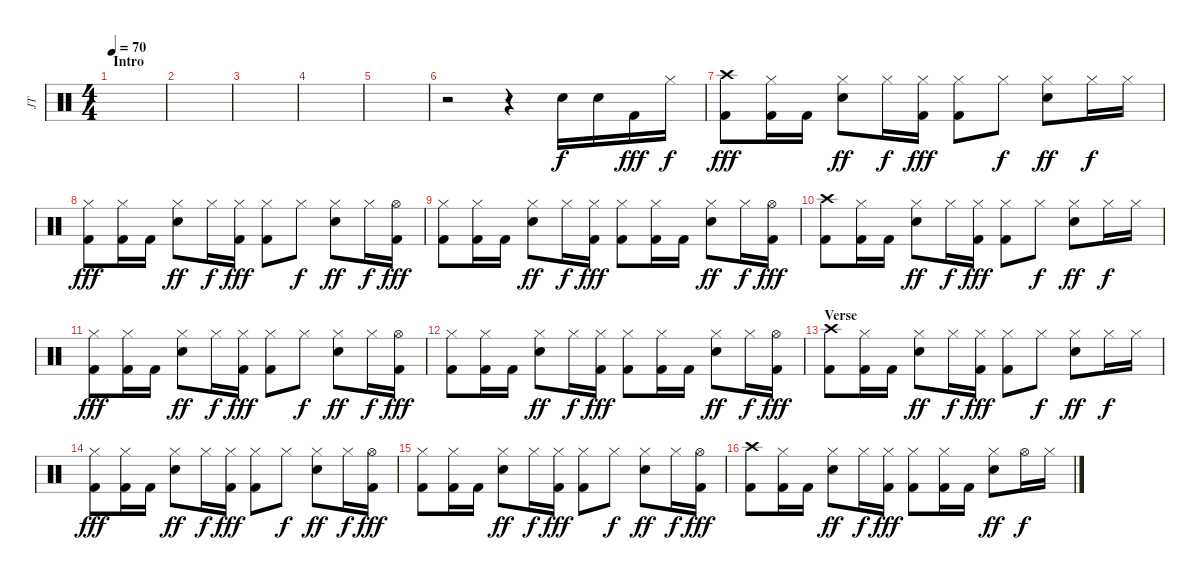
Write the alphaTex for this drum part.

\track ("JT" "JT") {instrument percussion}
\staff {score}
\articulation defaults
\ts (4 4)
\section ("" "Intro")
\tempo 70
\clef neutral
\ks c
|
|
|
|
|
r.2 r.4 "Electric Snare (hit)".16 "Electric Snare (hit)".16 "Kick (hit) 2".16{dy fff} "Hi-Hat (closed)".16{dy f} |
("Crash high (hit)" "Kick (hit) 2").8{dy fff} ("Hi-Hat (closed)" "Kick (hit) 2").16 "Kick (hit) 2".16 ("Hi-Hat (closed)" "Electric Snare (hit)").8{dy ff} "Hi-Hat (closed)".16{dy f} ("Hi-Hat (closed)" "Kick (hit) 2").16{dy fff} ("Hi-Hat (closed)" "Kick (hit) 2").8 "Hi-Hat (closed)".8{dy f} ("Hi-Hat (closed)" "Electric Snare (hit)").8{dy ff} "Hi-Hat (closed)".16{dy f} "Hi-Hat (closed)".16 |
("Hi-Hat (closed)" "Kick (hit) 2").8{dy fff} ("Hi-Hat (closed)" "Kick (hit) 2").16 "Kick (hit) 2".16 ("Hi-Hat (closed)" "Electric Snare (hit)").8{dy ff} "Hi-Hat (closed)".16{dy f} ("Hi-Hat (closed)" "Kick (hit) 2").16{dy fff} ("Hi-Hat (closed)" "Kick (hit) 2").8 "Hi-Hat (closed)".8{dy f} ("Hi-Hat (closed)" "Electric Snare (hit)").8{dy ff} "Hi-Hat (closed)".16{dy f} ("Hi-Hat (open)" "Kick (hit) 2").16{dy fff} |
("Hi-Hat (closed)" "Kick (hit) 2").8 ("Hi-Hat (closed)" "Kick (hit) 2").16 "Kick (hit) 2".16 ("Hi-Hat (closed)" "Electric Snare (hit)").8{dy ff} "Hi-Hat (closed)".16{dy f} ("Hi-Hat (closed)" "Kick (hit) 2").16{dy fff} ("Hi-Hat (closed)" "Kick (hit) 2").8 ("Hi-Hat (closed)" "Kick (hit) 2").16 "Kick (hit) 2".16 ("Hi-Hat (closed)" "Electric Snare (hit)").8{dy ff} "Hi-Hat (closed)".16{dy f} ("Hi-Hat (open)" "Kick (hit) 2").16{dy fff} |
("Crash high (hit)" "Kick (hit) 2").8 ("Hi-Hat (closed)" "Kick (hit) 2").16 "Kick (hit) 2".16 ("Hi-Hat (closed)" "Electric Snare (hit)").8{dy ff} "Hi-Hat (closed)".16{dy f} ("Hi-Hat (closed)" "Kick (hit) 2").16{dy fff} ("Hi-Hat (closed)" "Kick (hit) 2").8 "Hi-Hat (closed)".8{dy f} ("Hi-Hat (closed)" "Electric Snare (hit)").8{dy ff} "Hi-Hat (closed)".16{dy f} "Hi-Hat (closed)".16 |
("Hi-Hat (closed)" "Kick (hit) 2").8{dy fff} ("Hi-Hat (closed)" "Kick (hit) 2").16 "Kick (hit) 2".16 ("Hi-Hat (closed)" "Electric Snare (hit)").8{dy ff} "Hi-Hat (closed)".16{dy f} ("Hi-Hat (closed)" "Kick (hit) 2").16{dy fff} ("Hi-Hat (closed)" "Kick (hit) 2").8 "Hi-Hat (closed)".8{dy f} ("Hi-Hat (closed)" "Electric Snare (hit)").8{dy ff} "Hi-Hat (closed)".16{dy f} ("Hi-Hat (open)" "Kick (hit) 2").16{dy fff} |
("Hi-Hat (closed)" "Kick (hit) 2").8 ("Hi-Hat (closed)" "Kick (hit) 2").16 "Kick (hit) 2".16 ("Hi-Hat (closed)" "Electric Snare (hit)").8{dy ff} "Hi-Hat (closed)".16{dy f} ("Hi-Hat (closed)" "Kick (hit) 2").16{dy fff} ("Hi-Hat (closed)" "Kick (hit) 2").8 ("Hi-Hat (closed)" "Kick (hit) 2").16 "Kick (hit) 2".16 ("Hi-Hat (closed)" "Electric Snare (hit)").8{dy ff} "Hi-Hat (closed)".16{dy f} ("Hi-Hat (open)" "Kick (hit) 2").16{dy fff} |
\section ("" "Verse")
("Crash high (hit)" "Kick (hit) 2").8 ("Hi-Hat (closed)" "Kick (hit) 2").16 "Kick (hit) 2".16 ("Hi-Hat (closed)" "Electric Snare (hit)").8{dy ff} "Hi-Hat (closed)".16{dy f} ("Hi-Hat (closed)" "Kick (hit) 2").16{dy fff} ("Hi-Hat (closed)" "Kick (hit) 2").8 "Hi-Hat (closed)".8{dy f} ("Hi-Hat (closed)" "Electric Snare (hit)").8{dy ff} "Hi-Hat (closed)".16{dy f} "Hi-Hat (closed)".16 |
("Hi-Hat (closed)" "Kick (hit) 2").8{dy fff} ("Hi-Hat (closed)" "Kick (hit) 2").16 "Kick (hit) 2".16 ("Hi-Hat (closed)" "Electric Snare (hit)").8{dy ff} "Hi-Hat (closed)".16{dy f} ("Hi-Hat (closed)" "Kick (hit) 2").16{dy fff} ("Hi-Hat (closed)" "Kick (hit) 2").8 "Hi-Hat (closed)".8{dy f} ("Hi-Hat (closed)" "Electric Snare (hit)").8{dy ff} "Hi-Hat (closed)".16{dy f} ("Hi-Hat (open)" "Kick (hit) 2").16{dy fff} |
("Hi-Hat (closed)" "Kick (hit) 2").8 ("Hi-Hat (closed)" "Kick (hit) 2").16 "Kick (hit) 2".16 ("Hi-Hat (closed)" "Electric Snare (hit)").8{dy ff} "Hi-Hat (closed)".16{dy f} ("Hi-Hat (closed)" "Kick (hit) 2").16{dy fff} ("Hi-Hat (closed)" "Kick (hit) 2").8 "Hi-Hat (closed)".8{dy f} ("Hi-Hat (closed)" "Electric Snare (hit)").8{dy ff} "Hi-Hat (closed)".16{dy f} ("Hi-Hat (open)" "Kick (hit) 2").16{dy fff} |
("Crash high (hit)" "Kick (hit) 2").8 ("Hi-Hat (closed)" "Kick (hit) 2").16 "Kick (hit) 2".16 ("Hi-Hat (closed)" "Electric Snare (hit)").8{dy ff} "Hi-Hat (closed)".16{dy f} ("Hi-Hat (closed)" "Kick (hit) 2").16{dy fff} ("Hi-Hat (closed)" "Kick (hit) 2").8 ("Hi-Hat (closed)" "Kick (hit) 2").16 "Kick (hit) 2".16 ("Hi-Hat (closed)" "Electric Snare (hit)").8{dy ff} "Hi-Hat (open)".16{dy f} "Hi-Hat (closed)".16
